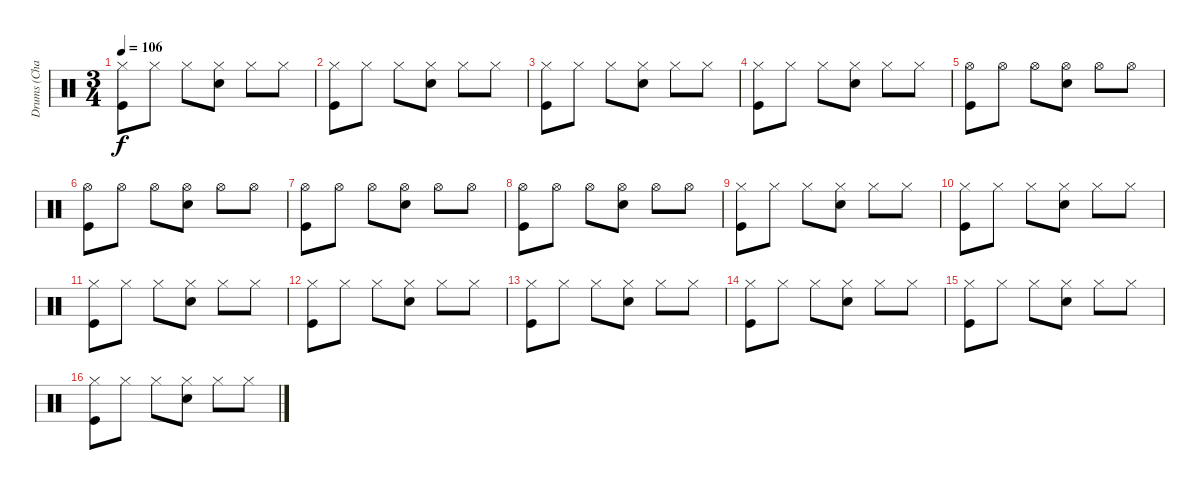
\track ("Drums (Chad?)" "Drums (Cha") {instrument percussion}
\staff {score}
\articulation defaults
\ts (3 4)
\tempo 106
\clef neutral
\ks c
("Hi-Hat (closed)" "Kick (hit)").8{dy f} "Hi-Hat (closed)".8 "Hi-Hat (closed)".8 ("Hi-Hat (closed)" "Snare (hit) 2").8 "Hi-Hat (closed)".8 "Hi-Hat (closed)".8 |
("Hi-Hat (closed)" "Kick (hit)").8 "Hi-Hat (closed)".8 "Hi-Hat (closed)".8 ("Hi-Hat (closed)" "Snare (hit) 2").8 "Hi-Hat (closed)".8 "Hi-Hat (closed)".8 |
("Hi-Hat (closed)" "Kick (hit)").8 "Hi-Hat (closed)".8 "Hi-Hat (closed)".8 ("Hi-Hat (closed)" "Snare (hit) 2").8 "Hi-Hat (closed)".8 "Hi-Hat (closed)".8 |
("Hi-Hat (closed)" "Kick (hit)").8 "Hi-Hat (closed)".8 "Hi-Hat (closed)".8 ("Hi-Hat (closed)" "Snare (hit) 2").8 "Hi-Hat (closed)".8 "Hi-Hat (closed)".8 |
("Hi-Hat (open)" "Kick (hit)").8 "Hi-Hat (open)".8 "Hi-Hat (open)".8 ("Hi-Hat (open)" "Snare (hit) 2").8 "Hi-Hat (open)".8 "Hi-Hat (open)".8 |
("Hi-Hat (open)" "Kick (hit)").8 "Hi-Hat (open)".8 "Hi-Hat (open)".8 ("Hi-Hat (open)" "Snare (hit) 2").8 "Hi-Hat (open)".8 "Hi-Hat (open)".8 |
("Hi-Hat (open)" "Kick (hit)").8 "Hi-Hat (open)".8 "Hi-Hat (open)".8 ("Hi-Hat (open)" "Snare (hit) 2").8 "Hi-Hat (open)".8 "Hi-Hat (open)".8 |
("Hi-Hat (open)" "Kick (hit)").8 "Hi-Hat (open)".8 "Hi-Hat (open)".8 ("Hi-Hat (open)" "Snare (hit) 2").8 "Hi-Hat (open)".8 "Hi-Hat (open)".8 |
("Hi-Hat (closed)" "Kick (hit)").8 "Hi-Hat (closed)".8 "Hi-Hat (closed)".8 ("Hi-Hat (closed)" "Snare (hit) 2").8 "Hi-Hat (closed)".8 "Hi-Hat (closed)".8 |
("Hi-Hat (closed)" "Kick (hit)").8 "Hi-Hat (closed)".8 "Hi-Hat (closed)".8 ("Hi-Hat (closed)" "Snare (hit) 2").8 "Hi-Hat (closed)".8 "Hi-Hat (closed)".8 |
("Hi-Hat (closed)" "Kick (hit)").8 "Hi-Hat (closed)".8 "Hi-Hat (closed)".8 ("Hi-Hat (closed)" "Snare (hit) 2").8 "Hi-Hat (closed)".8 "Hi-Hat (closed)".8 |
("Hi-Hat (closed)" "Kick (hit)").8 "Hi-Hat (closed)".8 "Hi-Hat (closed)".8 ("Hi-Hat (closed)" "Snare (hit) 2").8 "Hi-Hat (closed)".8 "Hi-Hat (closed)".8 |
("Hi-Hat (closed)" "Kick (hit)").8 "Hi-Hat (closed)".8 "Hi-Hat (closed)".8 ("Hi-Hat (closed)" "Snare (hit) 2").8 "Hi-Hat (closed)".8 "Hi-Hat (closed)".8 |
("Hi-Hat (closed)" "Kick (hit)").8 "Hi-Hat (closed)".8 "Hi-Hat (closed)".8 ("Hi-Hat (closed)" "Snare (hit) 2").8 "Hi-Hat (closed)".8 "Hi-Hat (closed)".8 |
("Hi-Hat (closed)" "Kick (hit)").8 "Hi-Hat (closed)".8 "Hi-Hat (closed)".8 ("Hi-Hat (closed)" "Snare (hit) 2").8 "Hi-Hat (closed)".8 "Hi-Hat (closed)".8 |
("Hi-Hat (closed)" "Kick (hit)").8 "Hi-Hat (closed)".8 "Hi-Hat (closed)".8 ("Hi-Hat (closed)" "Snare (hit) 2").8 "Hi-Hat (closed)".8 "Hi-Hat (closed)".8
